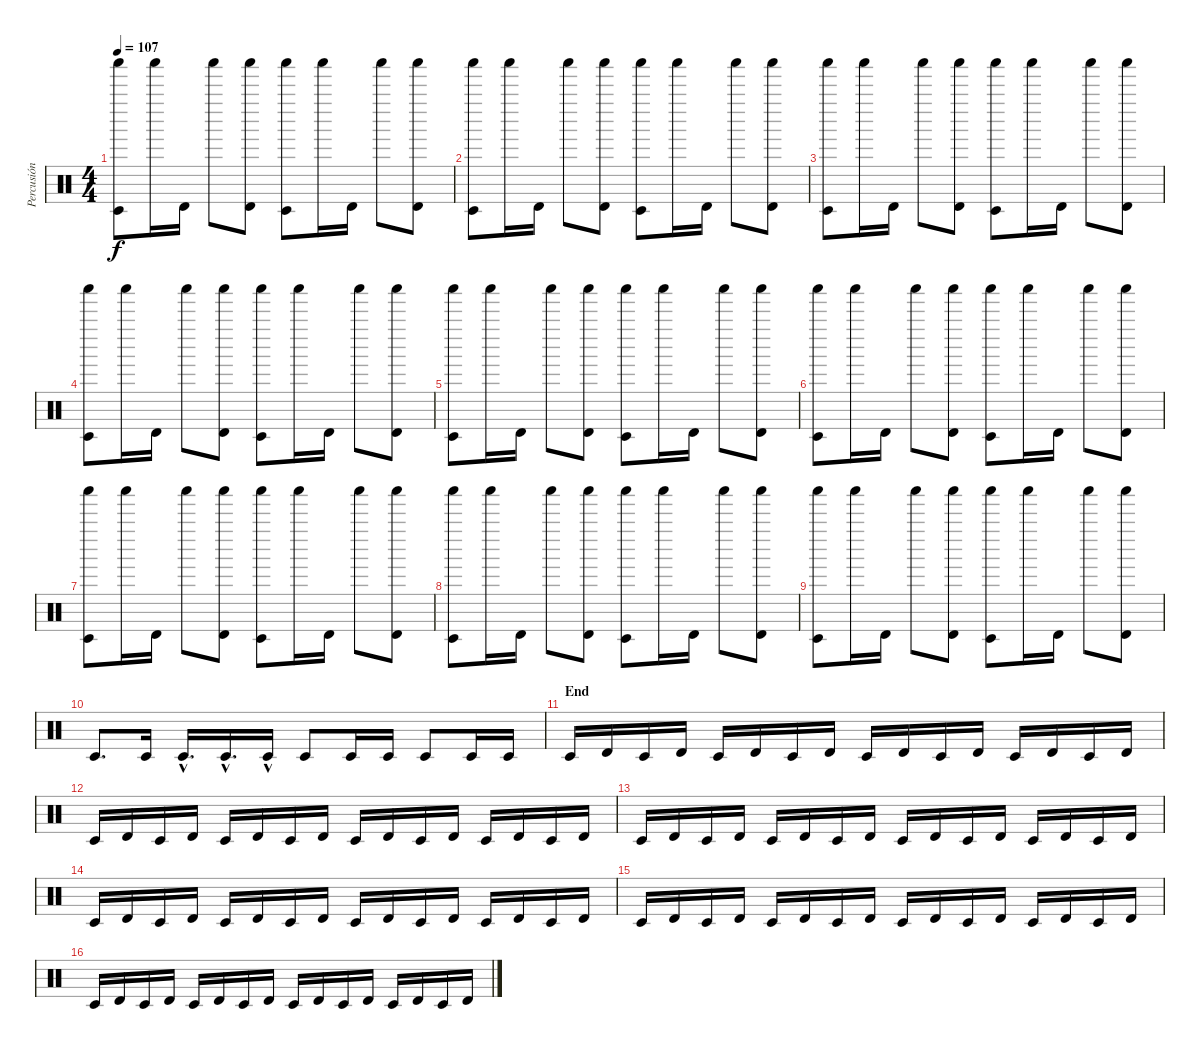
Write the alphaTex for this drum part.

\track ("Percusión" "Percusión") {instrument percussion}
\staff {score}
\articulation defaults
\ts (4 4)
\tempo 107
\clef neutral
\ks c
("Shaker (hit)" "Timbale low (hit)").8{dy f} "Shaker (hit)".16 "Timbale high (hit)".16 "Shaker (hit)".8 ("Shaker (hit)" "Timbale high (hit)").8 ("Shaker (hit)" "Timbale low (hit)").8 "Shaker (hit)".16 "Timbale high (hit)".16 "Shaker (hit)".8 ("Shaker (hit)" "Timbale high (hit)").8 |
("Shaker (hit)" "Timbale low (hit)").8 "Shaker (hit)".16 "Timbale high (hit)".16 "Shaker (hit)".8 ("Shaker (hit)" "Timbale high (hit)").8 ("Shaker (hit)" "Timbale low (hit)").8 "Shaker (hit)".16 "Timbale high (hit)".16 "Shaker (hit)".8 ("Shaker (hit)" "Timbale high (hit)").8 |
("Shaker (hit)" "Timbale low (hit)").8 "Shaker (hit)".16 "Timbale high (hit)".16 "Shaker (hit)".8 ("Shaker (hit)" "Timbale high (hit)").8 ("Shaker (hit)" "Timbale low (hit)").8 "Shaker (hit)".16 "Timbale high (hit)".16 "Shaker (hit)".8 ("Shaker (hit)" "Timbale high (hit)").8 |
("Shaker (hit)" "Timbale low (hit)").8 "Shaker (hit)".16 "Timbale high (hit)".16 "Shaker (hit)".8 ("Shaker (hit)" "Timbale high (hit)").8 ("Shaker (hit)" "Timbale low (hit)").8 "Shaker (hit)".16 "Timbale high (hit)".16 "Shaker (hit)".8 ("Shaker (hit)" "Timbale high (hit)").8 |
("Shaker (hit)" "Timbale low (hit)").8 "Shaker (hit)".16 "Timbale high (hit)".16 "Shaker (hit)".8 ("Shaker (hit)" "Timbale high (hit)").8 ("Shaker (hit)" "Timbale low (hit)").8 "Shaker (hit)".16 "Timbale high (hit)".16 "Shaker (hit)".8 ("Shaker (hit)" "Timbale high (hit)").8 |
("Shaker (hit)" "Timbale low (hit)").8 "Shaker (hit)".16 "Timbale high (hit)".16 "Shaker (hit)".8 ("Shaker (hit)" "Timbale high (hit)").8 ("Shaker (hit)" "Timbale low (hit)").8 "Shaker (hit)".16 "Timbale high (hit)".16 "Shaker (hit)".8 ("Shaker (hit)" "Timbale high (hit)").8 |
("Shaker (hit)" "Timbale low (hit)").8 "Shaker (hit)".16 "Timbale high (hit)".16 "Shaker (hit)".8 ("Shaker (hit)" "Timbale high (hit)").8 ("Shaker (hit)" "Timbale low (hit)").8 "Shaker (hit)".16 "Timbale high (hit)".16 "Shaker (hit)".8 ("Shaker (hit)" "Timbale high (hit)").8 |
("Shaker (hit)" "Timbale low (hit)").8 "Shaker (hit)".16 "Timbale high (hit)".16 "Shaker (hit)".8 ("Shaker (hit)" "Timbale high (hit)").8 ("Shaker (hit)" "Timbale low (hit)").8 "Shaker (hit)".16 "Timbale high (hit)".16 "Shaker (hit)".8 ("Shaker (hit)" "Timbale high (hit)").8 |
("Shaker (hit)" "Timbale low (hit)").8 "Shaker (hit)".16 "Timbale high (hit)".16 "Shaker (hit)".8 ("Shaker (hit)" "Timbale high (hit)").8 ("Shaker (hit)" "Timbale low (hit)").8 "Shaker (hit)".16 "Timbale high (hit)".16 "Shaker (hit)".8 ("Shaker (hit)" "Timbale high (hit)").8 |
"Timbale low (hit)".8{d} "Timbale low (hit)".16 "Timbale low (hit)"{hac}.16{d} "Timbale low (hit)"{hac}.16{d} "Timbale low (hit)"{hac}.16 "Timbale low (hit)".8 "Timbale low (hit)".16 "Timbale low (hit)".16 "Timbale low (hit)".8 "Timbale low (hit)".16 "Timbale low (hit)".16 |
\section ("" "End")
"Timbale low (hit)".16 "Timbale high (hit)".16 "Timbale low (hit)".16 "Timbale high (hit)".16 "Timbale low (hit)".16 "Timbale high (hit)".16 "Timbale low (hit)".16 "Timbale high (hit)".16 "Timbale low (hit)".16 "Timbale high (hit)".16 "Timbale low (hit)".16 "Timbale high (hit)".16 "Timbale low (hit)".16 "Timbale high (hit)".16 "Timbale low (hit)".16 "Timbale high (hit)".16 |
"Timbale low (hit)".16 "Timbale high (hit)".16 "Timbale low (hit)".16 "Timbale high (hit)".16 "Timbale low (hit)".16 "Timbale high (hit)".16 "Timbale low (hit)".16 "Timbale high (hit)".16 "Timbale low (hit)".16 "Timbale high (hit)".16 "Timbale low (hit)".16 "Timbale high (hit)".16 "Timbale low (hit)".16 "Timbale high (hit)".16 "Timbale low (hit)".16 "Timbale high (hit)".16 |
"Timbale low (hit)".16 "Timbale high (hit)".16 "Timbale low (hit)".16 "Timbale high (hit)".16 "Timbale low (hit)".16 "Timbale high (hit)".16 "Timbale low (hit)".16 "Timbale high (hit)".16 "Timbale low (hit)".16 "Timbale high (hit)".16 "Timbale low (hit)".16 "Timbale high (hit)".16 "Timbale low (hit)".16 "Timbale high (hit)".16 "Timbale low (hit)".16 "Timbale high (hit)".16 |
"Timbale low (hit)".16 "Timbale high (hit)".16 "Timbale low (hit)".16 "Timbale high (hit)".16 "Timbale low (hit)".16 "Timbale high (hit)".16 "Timbale low (hit)".16 "Timbale high (hit)".16 "Timbale low (hit)".16 "Timbale high (hit)".16 "Timbale low (hit)".16 "Timbale high (hit)".16 "Timbale low (hit)".16 "Timbale high (hit)".16 "Timbale low (hit)".16 "Timbale high (hit)".16 |
"Timbale low (hit)".16 "Timbale high (hit)".16 "Timbale low (hit)".16 "Timbale high (hit)".16 "Timbale low (hit)".16 "Timbale high (hit)".16 "Timbale low (hit)".16 "Timbale high (hit)".16 "Timbale low (hit)".16 "Timbale high (hit)".16 "Timbale low (hit)".16 "Timbale high (hit)".16 "Timbale low (hit)".16 "Timbale high (hit)".16 "Timbale low (hit)".16 "Timbale high (hit)".16 |
"Timbale low (hit)".16 "Timbale high (hit)".16 "Timbale low (hit)".16 "Timbale high (hit)".16 "Timbale low (hit)".16 "Timbale high (hit)".16 "Timbale low (hit)".16 "Timbale high (hit)".16 "Timbale low (hit)".16 "Timbale high (hit)".16 "Timbale low (hit)".16 "Timbale high (hit)".16 "Timbale low (hit)".16 "Timbale high (hit)".16 "Timbale low (hit)".16 "Timbale high (hit)".16
